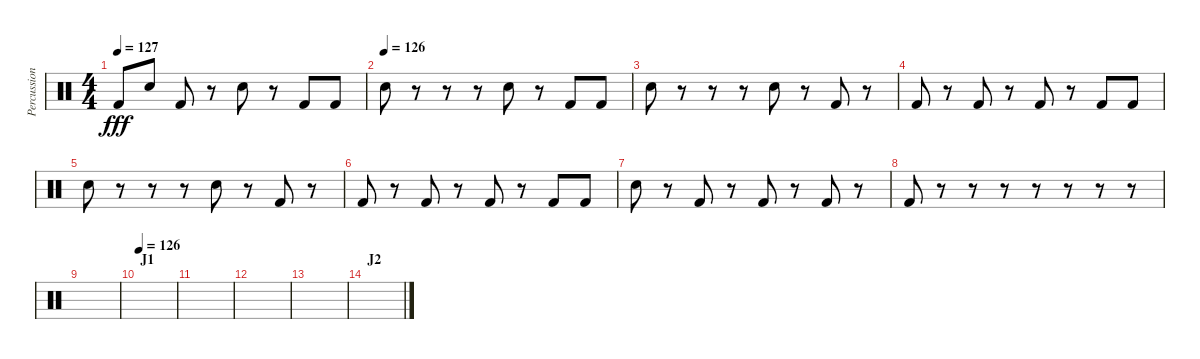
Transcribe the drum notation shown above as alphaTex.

\track ("Percussion" "Percussion") {instrument percussion}
\staff {score}
\articulation defaults
\ts (4 4)
\tempo 127
\clef neutral
\ks c "Kick (hit) 2".8{dy fff} "Electric Snare (hit)".8 "Kick (hit) 2".8
r.8 "Electric Snare (hit)".8 r.8 "Kick (hit) 2".8 "Kick (hit) 2".8 |
\tempo (126)
"Electric Snare (hit)".8 r.8 r.8 r.8 "Electric Snare (hit)".8 r.8 "Kick (hit) 2".8 "Kick (hit) 2".8 |
"Electric Snare (hit)".8 r.8 r.8 r.8 "Electric Snare (hit)".8 r.8 "Kick (hit) 2".8 r.8 |
"Kick (hit) 2".8 r.8 "Kick (hit) 2".8 r.8 "Kick (hit) 2".8 r.8 "Kick (hit) 2".8 "Kick (hit) 2".8 |
"Electric Snare (hit)".8 r.8 r.8 r.8 "Electric Snare (hit)".8 r.8 "Kick (hit) 2".8 r.8 |
"Kick (hit) 2".8 r.8 "Kick (hit) 2".8 r.8 "Kick (hit) 2".8 r.8 "Kick (hit) 2".8 "Kick (hit) 2".8 |
"Electric Snare (hit)".8 r.8 "Kick (hit) 2".8 r.8 "Kick (hit) 2".8 r.8 "Kick (hit) 2".8 r.8 |
"Kick (hit) 2".8 r.8 r.8 r.8 r.8 r.8 r.8 r.8 |
|
\section ("" "J1")
\tempo 126
|
|
|
|
\section ("" "J2")
